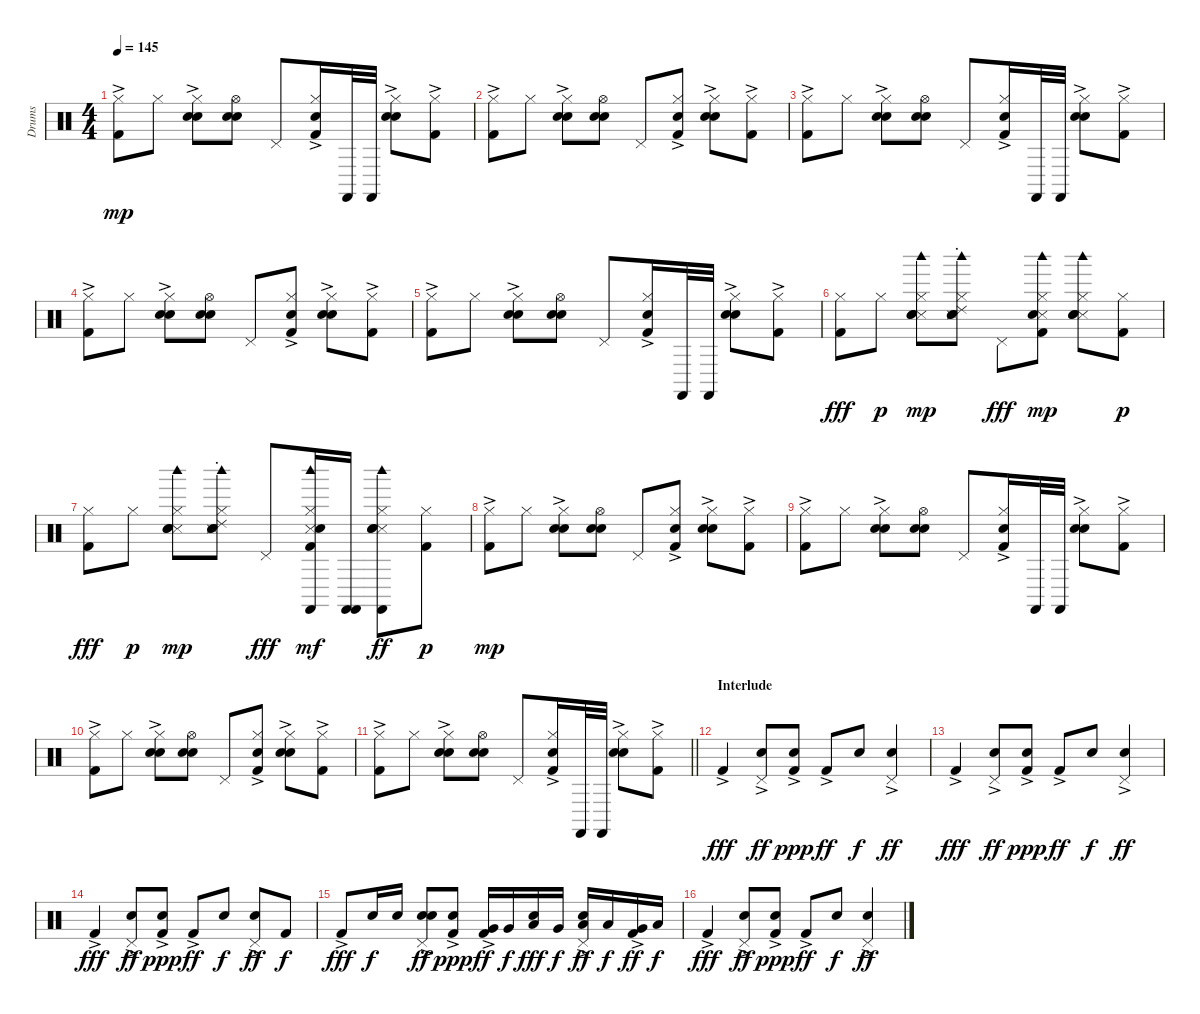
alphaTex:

\track ("Drums" "Drums") {instrument percussion}
\staff {score}
\articulation defaults
\ts (4 4)
\tempo 145
\clef neutral
\ks c
("Kick (hit) 2"{ac} "Hi-Hat (closed)").8{dy mp} "Hi-Hat (closed)".8 ("Hand Clap (hit)" "Electric Snare (hit)"{ac} "Hi-Hat (closed)").8 ("Hand Clap (hit)" "Electric Snare (hit)" "Hi-Hat (open)").8 "Pedal Hi-Hat (hit)".8 ("Kick (hit) 2"{ac} "Hand Clap (hit)" "Hi-Hat (closed)").16 "Castanets (hit)".32 "Castanets (hit)".32 ("Hand Clap (hit)" "Electric Snare (hit)"{ac} "Hi-Hat (closed)").8 ("Kick (hit) 2"{ac} "Hi-Hat (closed)").8 |
("Kick (hit) 2"{ac} "Hi-Hat (closed)").8 "Hi-Hat (closed)".8 ("Hand Clap (hit)" "Electric Snare (hit)"{ac} "Hi-Hat (closed)").8 ("Hand Clap (hit)" "Electric Snare (hit)" "Hi-Hat (open)").8 "Pedal Hi-Hat (hit)".8 ("Kick (hit) 2"{ac} "Hand Clap (hit)" "Hi-Hat (closed)").8 ("Hand Clap (hit)" "Electric Snare (hit)"{ac} "Hi-Hat (closed)").8 ("Kick (hit) 2"{ac} "Hi-Hat (closed)").8 |
("Kick (hit) 2"{ac} "Hi-Hat (closed)").8 "Hi-Hat (closed)".8 ("Hand Clap (hit)" "Electric Snare (hit)"{ac} "Hi-Hat (closed)").8 ("Hand Clap (hit)" "Electric Snare (hit)" "Hi-Hat (open)").8 "Pedal Hi-Hat (hit)".8 ("Kick (hit) 2"{ac} "Hand Clap (hit)" "Hi-Hat (closed)").16 "Castanets (hit)".32 "Castanets (hit)".32 ("Hand Clap (hit)" "Electric Snare (hit)"{ac} "Hi-Hat (closed)").8 ("Kick (hit) 2"{ac} "Hi-Hat (closed)").8 |
("Kick (hit) 2"{ac} "Hi-Hat (closed)").8 "Hi-Hat (closed)".8 ("Hand Clap (hit)" "Electric Snare (hit)"{ac} "Hi-Hat (closed)").8 ("Hand Clap (hit)" "Electric Snare (hit)" "Hi-Hat (open)").8 "Pedal Hi-Hat (hit)".8 ("Kick (hit) 2"{ac} "Hand Clap (hit)" "Hi-Hat (closed)").8 ("Hand Clap (hit)" "Electric Snare (hit)"{ac} "Hi-Hat (closed)").8 ("Kick (hit) 2"{ac} "Hi-Hat (closed)").8 |
("Kick (hit) 2"{ac} "Hi-Hat (closed)").8 "Hi-Hat (closed)".8 ("Hand Clap (hit)" "Electric Snare (hit)"{ac} "Hi-Hat (closed)").8 ("Hand Clap (hit)" "Electric Snare (hit)" "Hi-Hat (open)").8 "Pedal Hi-Hat (hit)".8 ("Kick (hit) 2"{ac} "Hand Clap (hit)" "Hi-Hat (closed)").16 "Castanets (hit)".32 "Castanets (hit)".32 ("Hand Clap (hit)" "Electric Snare (hit)"{ac} "Hi-Hat (closed)").8 ("Kick (hit) 2"{ac} "Hi-Hat (closed)").8 |
("Kick (hit) 2" "Hi-Hat (closed)").8{dy fff} "Hi-Hat (closed)".8{dy p} ("Snare (side stick) 3" "Hand Clap (hit)" "Electric Snare (hit)" "Hi-Hat (closed)" "Woodblock high (hit)").8{dy mp} ("Ride (choke) 2" "Snare (side stick) 3" "Hand Clap (hit)" "Electric Snare (hit)" "Hi-Hat (closed)" "Woodblock high (hit)").8 "Pedal Hi-Hat (hit)".8{dy fff} ("Kick (hit) 2" "Snare (side stick) 3" "Hand Clap (hit)" "Hi-Hat (closed)" "Woodblock high (hit)").8{dy mp} ("Snare (side stick) 3" "Hand Clap (hit)" "Electric Snare (hit)" "Hi-Hat (closed)" "Woodblock high (hit)").8 ("Kick (hit) 2" "Hi-Hat (closed)").8{dy p} |
("Kick (hit) 2" "Hi-Hat (closed)").8{dy fff} "Hi-Hat (closed)".8{dy p} ("Snare (side stick) 3" "Hand Clap (hit)" "Electric Snare (hit)" "Hi-Hat (closed)" "Woodblock high (hit)").8{dy mp} ("Ride (choke) 2" "Snare (side stick) 3" "Hand Clap (hit)" "Electric Snare (hit)" "Hi-Hat (closed)" "Woodblock high (hit)").8 "Pedal Hi-Hat (hit)".8{dy fff} ("Kick (hit) 2" "Snare (side stick) 3" "Hand Clap (hit)" "Hi-Hat (closed)" "Woodblock high (hit)" "Castanets (hit)").16{dy mf} ("Castanets (hit)" "Castanets (hit)").16 ("Snare (side stick) 3" "Hand Clap (hit)" "Electric Snare (hit)" "Hi-Hat (closed)" "Woodblock high (hit)" "Castanets (hit)").8{dy ff} ("Kick (hit) 2" "Hi-Hat (closed)").8{dy p} |
("Kick (hit) 2"{ac} "Hi-Hat (closed)").8{dy mp} "Hi-Hat (closed)".8 ("Hand Clap (hit)" "Electric Snare (hit)"{ac} "Hi-Hat (closed)").8 ("Hand Clap (hit)" "Electric Snare (hit)" "Hi-Hat (open)").8 "Pedal Hi-Hat (hit)".8 ("Kick (hit) 2"{ac} "Hand Clap (hit)" "Hi-Hat (closed)").8 ("Hand Clap (hit)" "Electric Snare (hit)"{ac} "Hi-Hat (closed)").8 ("Kick (hit) 2"{ac} "Hi-Hat (closed)").8 |
("Kick (hit) 2"{ac} "Hi-Hat (closed)").8 "Hi-Hat (closed)".8 ("Hand Clap (hit)" "Electric Snare (hit)"{ac} "Hi-Hat (closed)").8 ("Hand Clap (hit)" "Electric Snare (hit)" "Hi-Hat (open)").8 "Pedal Hi-Hat (hit)".8 ("Kick (hit) 2"{ac} "Hand Clap (hit)" "Hi-Hat (closed)").16 "Castanets (hit)".32 "Castanets (hit)".32 ("Hand Clap (hit)" "Electric Snare (hit)"{ac} "Hi-Hat (closed)").8 ("Kick (hit) 2"{ac} "Hi-Hat (closed)").8 |
("Kick (hit) 2"{ac} "Hi-Hat (closed)").8 "Hi-Hat (closed)".8 ("Hand Clap (hit)" "Electric Snare (hit)"{ac} "Hi-Hat (closed)").8 ("Hand Clap (hit)" "Electric Snare (hit)" "Hi-Hat (open)").8 "Pedal Hi-Hat (hit)".8 ("Kick (hit) 2"{ac} "Hand Clap (hit)" "Hi-Hat (closed)").8 ("Hand Clap (hit)" "Electric Snare (hit)"{ac} "Hi-Hat (closed)").8 ("Kick (hit) 2"{ac} "Hi-Hat (closed)").8 |
\barLineRight lightlight
("Kick (hit) 2"{ac} "Hi-Hat (closed)").8 "Hi-Hat (closed)".8 ("Hand Clap (hit)" "Electric Snare (hit)"{ac} "Hi-Hat (closed)").8 ("Hand Clap (hit)" "Electric Snare (hit)" "Hi-Hat (open)").8 "Pedal Hi-Hat (hit)".8 ("Kick (hit) 2"{ac} "Hand Clap (hit)" "Hi-Hat (closed)").16 "Castanets (hit)".32 "Castanets (hit)".32 ("Hand Clap (hit)" "Electric Snare (hit)"{ac} "Hi-Hat (closed)").8 ("Kick (hit) 2"{ac} "Hi-Hat (closed)").8 |
\section ("" "Interlude")
"Kick (hit) 2"{ac}.4{dy fff} ("Pedal Hi-Hat (hit)" "Hand Clap (hit)"{ac}).8{dy ff} ("Kick (hit) 2"{ac} "Hand Clap (hit)").8{dy ppp} "Kick (hit) 2"{ac}.8{dy ff} "Hand Clap (hit)".8{dy f} ("Pedal Hi-Hat (hit)" "Hand Clap (hit)"{ac}).4{dy ff} |
"Kick (hit) 2"{ac}.4{dy fff} ("Pedal Hi-Hat (hit)" "Hand Clap (hit)"{ac}).8{dy ff} ("Kick (hit) 2"{ac} "Hand Clap (hit)").8{dy ppp} "Kick (hit) 2"{ac}.8{dy ff} "Hand Clap (hit)".8{dy f} ("Pedal Hi-Hat (hit)" "Hand Clap (hit)"{ac}).4{dy ff} |
"Kick (hit) 2"{ac}.4{dy fff} ("Pedal Hi-Hat (hit)" "Hand Clap (hit)"{ac}).8{dy ff} ("Kick (hit) 2"{ac} "Hand Clap (hit)").8{dy ppp} "Kick (hit) 2"{ac}.8{dy ff} "Hand Clap (hit)".8{dy f} ("Pedal Hi-Hat (hit)" "Hand Clap (hit)"{ac}).8{dy ff} "Kick (hit) 2".8{dy f} |
"Kick (hit) 2"{ac}.8{dy fff} "Electric Snare (hit)".16{dy f} "Electric Snare (hit)".16 ("Pedal Hi-Hat (hit)" "Hand Clap (hit)"{ac} "Electric Snare (hit)"{ac}).8{dy ff} ("Kick (hit) 2"{ac} "Hand Clap (hit)").8{dy ppp} ("Kick (hit) 2"{ac} "Very Low Tom (hit)").16{dy ff} "Very Low Tom (hit)".16{dy f} ("Low Floor Tom (hit)" "Hand Clap (hit)").16{dy fff} "Very Low Tom (hit)".16{dy f} ("Pedal Hi-Hat (hit)" "Low Tom (hit)" "Hand Clap (hit)"{ac}).16{dy ff} "Low Tom (hit)".16{dy f} ("Kick (hit) 2"{ac} "Very Low Tom (hit)").16{dy ff} "Low Floor Tom (hit)".16{dy f} |
"Kick (hit) 2"{ac}.4{dy fff} ("Pedal Hi-Hat (hit)" "Hand Clap (hit)"{ac}).8{dy ff} ("Kick (hit) 2"{ac} "Hand Clap (hit)").8{dy ppp} "Kick (hit) 2"{ac}.8{dy ff} "Hand Clap (hit)".8{dy f} ("Pedal Hi-Hat (hit)" "Hand Clap (hit)"{ac}).4{dy ff}
